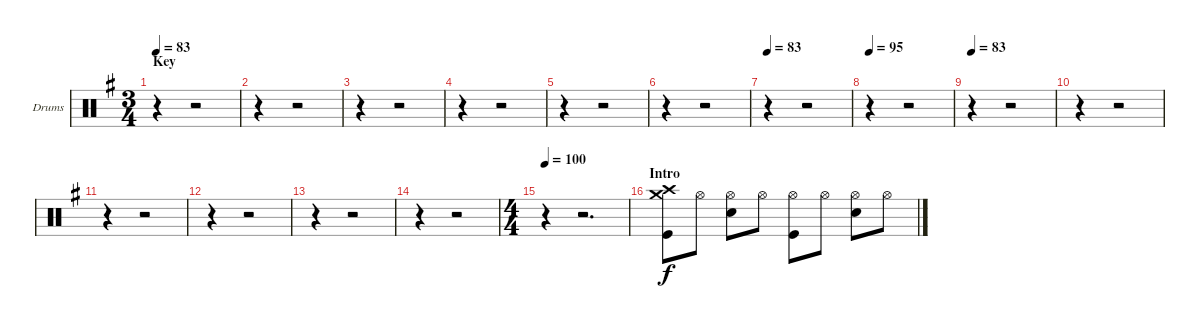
\bracketExtendMode groupsimilarinstruments
\firstSystemTrackNameOrientation horizontal
\otherSystemsTrackNameOrientation horizontal
\track ("drums (Anton Zulganov)" "Drums") {instrument percussion}
\staff {score}
\articulation defaults
\ts (3 4)
\beaming (8 2 2 2)
\section ("" "Key")
\tempo 83
\clef neutral
\ks eminor
r.4{dy f} r.2 |
r.4 r.2 |
r.4 r.2 |
r.4 r.2 |
r.4 r.2 |
r.4 r.2 |
\tempo 83
r.4 r.2 |
\tempo 95
r.4 r.2 |
\tempo (83 0.00625)
r.4 r.2 |
r.4 r.2 |
r.4 r.2 |
r.4 r.2 |
r.4 r.2 |
r.4 r.2 |
\ts (4 4)
\beaming (8 2 2 2 2)
\tempo 100
r.4 r.2{d} |
\section ("" "Intro")
("Crash medium (hit)" "Kick (hit)" "Crash high (hit)").8 "Hi-Hat (open)".8 ("Hi-Hat (open)" "Snare (hit) 2").8 "Hi-Hat (open)".8 ("Hi-Hat (open)" "Kick (hit)").8 "Hi-Hat (open)".8 ("Hi-Hat (open)" "Snare (hit) 2").8 "Hi-Hat (open)".8
